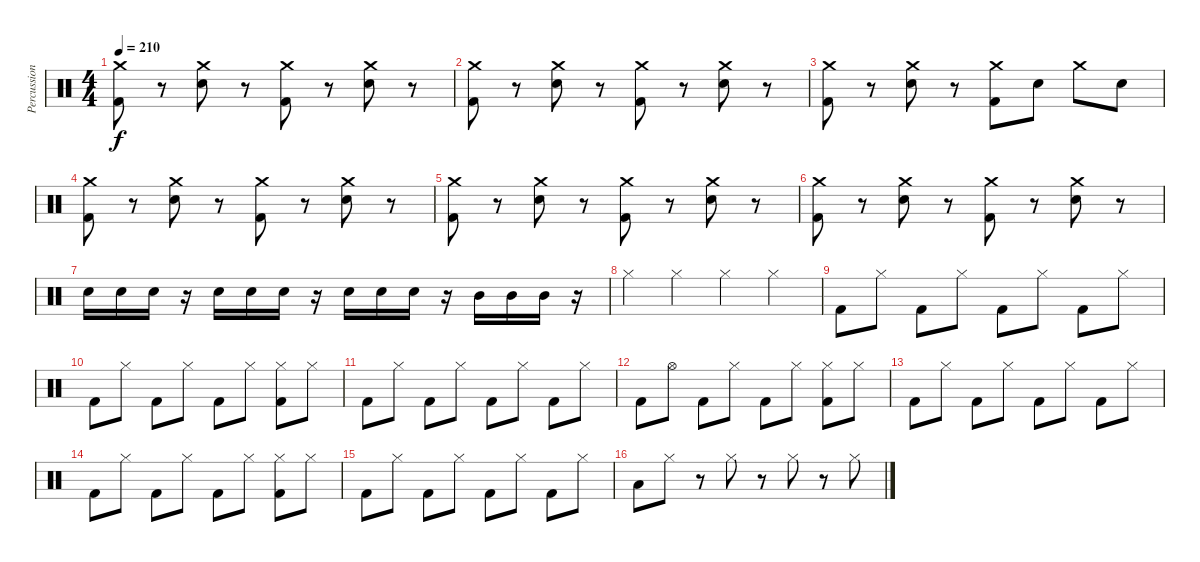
\track ("Percussion" "Percussion") {instrument percussion}
\staff {score}
\articulation defaults
\ts (4 4)
\tempo 210
\clef neutral
\ks c
("Kick (hit) 2" "Crash medium (hit)").8{dy f} r.8 ("Snare (hit) 2" "Crash medium (hit)").8 r.8 ("Kick (hit) 2" "Crash medium (hit)").8 r.8 ("Snare (hit) 2" "Crash medium (hit)").8 r.8 |
("Kick (hit) 2" "Crash medium (hit)").8 r.8 ("Snare (hit) 2" "Crash medium (hit)").8 r.8 ("Kick (hit) 2" "Crash medium (hit)").8 r.8 ("Snare (hit) 2" "Crash medium (hit)").8 r.8 |
("Kick (hit) 2" "Crash medium (hit)").8 r.8 ("Snare (hit) 2" "Crash medium (hit)").8 r.8 ("Kick (hit) 2" "Crash medium (hit)").8 "Snare (hit) 2".8 "Crash medium (hit)".8 "Snare (hit) 2".8 |
("Kick (hit) 2" "Crash medium (hit)").8 r.8 ("Snare (hit) 2" "Crash medium (hit)").8 r.8 ("Kick (hit) 2" "Crash medium (hit)").8 r.8 ("Snare (hit) 2" "Crash medium (hit)").8 r.8 |
("Kick (hit) 2" "Crash medium (hit)").8 r.8 ("Snare (hit) 2" "Crash medium (hit)").8 r.8 ("Kick (hit) 2" "Crash medium (hit)").8 r.8 ("Snare (hit) 2" "Crash medium (hit)").8 r.8 |
("Kick (hit) 2" "Crash medium (hit)").8 r.8 ("Snare (hit) 2" "Crash medium (hit)").8 r.8 ("Kick (hit) 2" "Crash medium (hit)").8 r.8 ("Snare (hit) 2" "Crash medium (hit)").8 r.8 |
"Snare (hit) 2".16 "Snare (hit) 2".16 "Snare (hit) 2".16 r.16 "Snare (hit) 2".16 "Snare (hit) 2".16 "Snare (hit) 2".16 r.16 "Snare (hit) 2".16 "Snare (hit) 2".16 "Snare (hit) 2".16 r.16 "Mid Tom (hit)".16 "Mid Tom (hit)".16 "Mid Tom (hit)".16 r.16 |
"Hi-Hat (closed)".4 "Hi-Hat (closed)".4 "Hi-Hat (closed)".4 "Hi-Hat (closed)".4 |
"Kick (hit) 2".8 "Hi-Hat (closed)".8 "Kick (hit) 2".8 "Hi-Hat (closed)".8 "Kick (hit) 2".8 "Hi-Hat (closed)".8 "Kick (hit) 2".8 "Hi-Hat (closed)".8 |
"Kick (hit) 2".8 "Hi-Hat (closed)".8 "Kick (hit) 2".8 "Hi-Hat (closed)".8 "Kick (hit) 2".8 "Hi-Hat (closed)".8 ("Kick (hit) 2" "Hi-Hat (closed)").8 "Hi-Hat (closed)".8 |
"Kick (hit) 2".8 "Hi-Hat (closed)".8 "Kick (hit) 2".8 "Hi-Hat (closed)".8 "Kick (hit) 2".8 "Hi-Hat (closed)".8 "Kick (hit) 2".8 "Hi-Hat (closed)".8 |
"Kick (hit) 2".8 "Hi-Hat (open)".8 "Kick (hit) 2".8 "Hi-Hat (closed)".8 "Kick (hit) 2".8 "Hi-Hat (closed)".8 ("Kick (hit) 2" "Hi-Hat (closed)").8 "Hi-Hat (closed)".8 |
"Kick (hit) 2".8 "Hi-Hat (closed)".8 "Kick (hit) 2".8 "Hi-Hat (closed)".8 "Kick (hit) 2".8 "Hi-Hat (closed)".8 "Kick (hit) 2".8 "Hi-Hat (closed)".8 |
"Kick (hit) 2".8 "Hi-Hat (closed)".8 "Kick (hit) 2".8 "Hi-Hat (closed)".8 "Kick (hit) 2".8 "Hi-Hat (closed)".8 ("Kick (hit) 2" "Hi-Hat (closed)").8 "Hi-Hat (closed)".8 |
"Kick (hit) 2".8 "Hi-Hat (closed)".8 "Kick (hit) 2".8 "Hi-Hat (closed)".8 "Kick (hit) 2".8 "Hi-Hat (closed)".8 "Kick (hit) 2".8 "Hi-Hat (closed)".8 |
"Low Floor Tom (hit)".8 "Hi-Hat (closed)".8 r.8 "Hi-Hat (closed)".8 r.8 "Hi-Hat (closed)".8 r.8 "Hi-Hat (closed)".8
